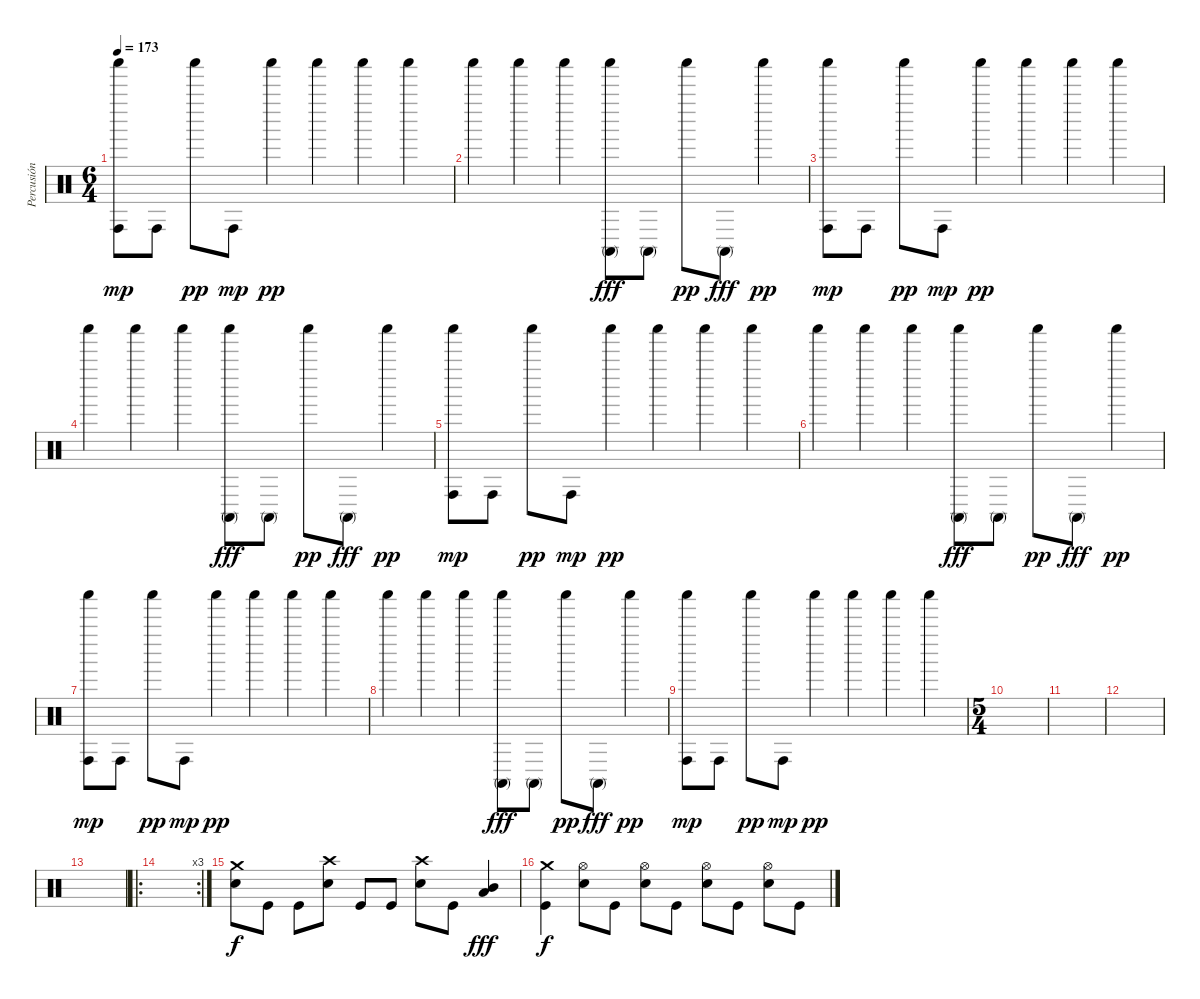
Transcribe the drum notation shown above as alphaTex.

\track ("Percusión" "Percusión") {instrument percussion}
\staff {score}
\articulation defaults
\ts (6 4)
\tempo 173
\clef neutral
\ks c
("Shaker (hit)" "Conga high (hit)").8{dy mp} "Conga high (hit)".8 "Shaker (hit)".8{dy pp} "Conga high (hit)".8{dy mp} "Shaker (hit)".4{dy pp} "Shaker (hit)".4 "Shaker (hit)".4 "Shaker (hit)".4 |
"Shaker (hit)".4 "Shaker (hit)".4 "Shaker (hit)".4 ("Shaker (hit)" "Conga high (mute)").8{dy fff} "Conga high (mute)".8 "Shaker (hit)".8{dy pp} "Conga high (mute)".8{dy fff} "Shaker (hit)".4{dy pp} |
("Shaker (hit)" "Conga high (hit)").8{dy mp} "Conga high (hit)".8 "Shaker (hit)".8{dy pp} "Conga high (hit)".8{dy mp} "Shaker (hit)".4{dy pp} "Shaker (hit)".4 "Shaker (hit)".4 "Shaker (hit)".4 |
"Shaker (hit)".4 "Shaker (hit)".4 "Shaker (hit)".4 ("Shaker (hit)" "Conga high (mute)").8{dy fff} "Conga high (mute)".8 "Shaker (hit)".8{dy pp} "Conga high (mute)".8{dy fff} "Shaker (hit)".4{dy pp} |
("Shaker (hit)" "Conga high (hit)").8{dy mp} "Conga high (hit)".8 "Shaker (hit)".8{dy pp} "Conga high (hit)".8{dy mp} "Shaker (hit)".4{dy pp} "Shaker (hit)".4 "Shaker (hit)".4 "Shaker (hit)".4 |
"Shaker (hit)".4 "Shaker (hit)".4 "Shaker (hit)".4 ("Shaker (hit)" "Conga high (mute)").8{dy fff} "Conga high (mute)".8 "Shaker (hit)".8{dy pp} "Conga high (mute)".8{dy fff} "Shaker (hit)".4{dy pp} |
("Shaker (hit)" "Conga high (hit)").8{dy mp} "Conga high (hit)".8 "Shaker (hit)".8{dy pp} "Conga high (hit)".8{dy mp} "Shaker (hit)".4{dy pp} "Shaker (hit)".4 "Shaker (hit)".4 "Shaker (hit)".4 |
"Shaker (hit)".4 "Shaker (hit)".4 "Shaker (hit)".4 ("Shaker (hit)" "Conga high (mute)").8{dy fff} "Conga high (mute)".8 "Shaker (hit)".8{dy pp} "Conga high (mute)".8{dy fff} "Shaker (hit)".4{dy pp} |
("Shaker (hit)" "Conga high (hit)").8{dy mp} "Conga high (hit)".8 "Shaker (hit)".8{dy pp} "Conga high (hit)".8{dy mp} "Shaker (hit)".4{dy pp} "Shaker (hit)".4 "Shaker (hit)".4 "Shaker (hit)".4 |
\ts (5 4)
|
|
|
|
\ro
\rc 3
|
("Crash medium (hit)" "Electric Snare (hit)").8{dy f} "Kick (hit)".8 "Kick (hit)".8 ("Crash high (hit)" "Electric Snare (hit)").8 "Kick (hit)".8 "Kick (hit)".8 ("Crash high (hit)" "Electric Snare (hit)").8 "Kick (hit)".8 ("Mid Tom (hit)" "Low Tom (hit)").4{dy fff} |
("Crash medium (hit)" "Kick (hit)").4{dy f} ("Hi-Hat (open)" "Electric Snare (hit)").8 "Kick (hit)".8 ("Hi-Hat (open)" "Electric Snare (hit)").8 "Kick (hit)".8 ("Hi-Hat (open)" "Electric Snare (hit)").8 "Kick (hit)".8 ("Hi-Hat (open)" "Electric Snare (hit)").8 "Kick (hit)".8
